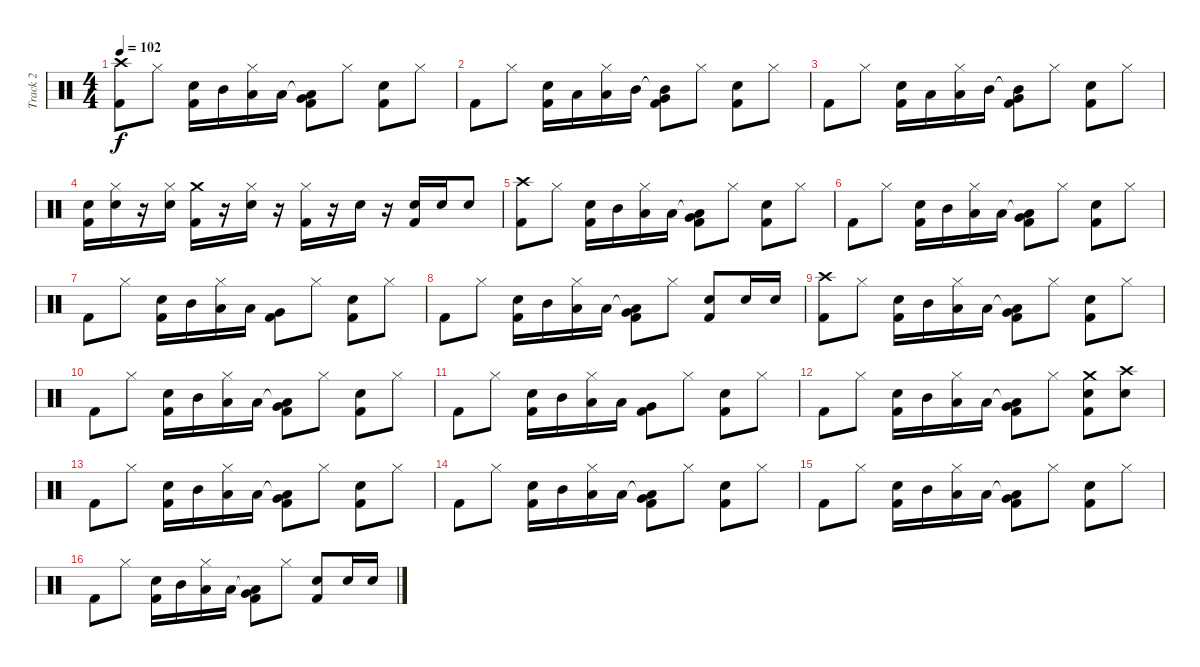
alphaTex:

\track ("Track 2" "Track 2") {instrument percussion}
\staff {score}
\articulation defaults
\ts (4 4)
\tempo 102
\clef neutral
\ks c
("Crash high (hit)" "Kick (hit) 2").8{dy f} "Hi-Hat (closed)".8 ("Electric Snare (hit)" "Kick (hit) 2").16 "Mid Tom (hit)".16 ("Hi-Hat (closed)" "Low Tom (hit)").16 "Low Tom (hit)".16 ("Low Tom (hit)"{t} "Very Low Tom (hit)" "Kick (hit) 2").8 "Hi-Hat (closed)".8 ("Electric Snare (hit)" "Kick (hit) 2").8 "Hi-Hat (closed)".8 |
"Kick (hit) 2".8 "Hi-Hat (closed)".8 ("Electric Snare (hit)" "Kick (hit) 2").16 "Low Tom (hit)".16 ("Hi-Hat (closed)" "Low Tom (hit)").16 "Mid Tom (hit)".16 ("Mid Tom (hit)"{t} "Very Low Tom (hit)" "Kick (hit) 2").8 "Hi-Hat (closed)".8 ("Electric Snare (hit)" "Kick (hit) 2").8 "Hi-Hat (closed)".8 |
"Kick (hit) 2".8 "Hi-Hat (closed)".8 ("Electric Snare (hit)" "Kick (hit) 2").16 "Low Tom (hit)".16 ("Hi-Hat (closed)" "Low Tom (hit)").16 "Mid Tom (hit)".16 ("Mid Tom (hit)"{t} "Very Low Tom (hit)" "Kick (hit) 2").8 "Hi-Hat (closed)".8 ("Electric Snare (hit)" "Kick (hit) 2").8 "Hi-Hat (closed)".8 |
("Electric Snare (hit)" "Kick (hit) 2").16 ("Hi-Hat (closed)" "Electric Snare (hit)").16 r.16 ("Hi-Hat (closed)" "Electric Snare (hit)").16 ("Crash medium (hit)" "Kick (hit) 2").16 r.16 ("Hi-Hat (closed)" "Electric Snare (hit)").16 r.16 ("Hi-Hat (closed)" "Kick (hit) 2").16 r.16 "Electric Snare (hit)".16 r.16 ("Electric Snare (hit)" "Kick (hit) 2").16 "Electric Snare (hit)".16 "Electric Snare (hit)".8 |
("Crash high (hit)" "Kick (hit) 2").8 "Hi-Hat (closed)".8 ("Electric Snare (hit)" "Kick (hit) 2").16 "Mid Tom (hit)".16 ("Hi-Hat (closed)" "Low Tom (hit)").16 "Low Tom (hit)".16 ("Low Tom (hit)"{t} "Very Low Tom (hit)" "Kick (hit) 2").8 "Hi-Hat (closed)".8 ("Electric Snare (hit)" "Kick (hit) 2").8 "Hi-Hat (closed)".8 |
"Kick (hit) 2".8 "Hi-Hat (closed)".8 ("Electric Snare (hit)" "Kick (hit) 2").16 "Mid Tom (hit)".16 ("Hi-Hat (closed)" "Low Tom (hit)").16 "Low Tom (hit)".16 ("Low Tom (hit)"{t} "Very Low Tom (hit)" "Kick (hit) 2").8 "Hi-Hat (closed)".8 ("Electric Snare (hit)" "Kick (hit) 2").8 "Hi-Hat (closed)".8 |
"Kick (hit) 2".8 "Hi-Hat (closed)".8 ("Electric Snare (hit)" "Kick (hit) 2").16 "Mid Tom (hit)".16 ("Hi-Hat (closed)" "Low Tom (hit)").16 "Low Tom (hit)".16 ("Very Low Tom (hit)" "Kick (hit) 2").8 "Hi-Hat (closed)".8 ("Electric Snare (hit)" "Kick (hit) 2").8 "Hi-Hat (closed)".8 |
"Kick (hit) 2".8 "Hi-Hat (closed)".8 ("Electric Snare (hit)" "Kick (hit) 2").16 "Mid Tom (hit)".16 ("Hi-Hat (closed)" "Low Tom (hit)").16 "Low Tom (hit)".16 ("Low Tom (hit)"{t} "Very Low Tom (hit)" "Kick (hit) 2").8 "Hi-Hat (closed)".8 ("Electric Snare (hit)" "Kick (hit) 2").8 "Electric Snare (hit)".16 "Electric Snare (hit)".16 |
("Crash high (hit)" "Kick (hit) 2").8 "Hi-Hat (closed)".8 ("Electric Snare (hit)" "Kick (hit) 2").16 "Mid Tom (hit)".16 ("Hi-Hat (closed)" "Low Tom (hit)").16 "Low Tom (hit)".16 ("Low Tom (hit)"{t} "Very Low Tom (hit)" "Kick (hit) 2").8 "Hi-Hat (closed)".8 ("Electric Snare (hit)" "Kick (hit) 2").8 "Hi-Hat (closed)".8 |
"Kick (hit) 2".8 "Hi-Hat (closed)".8 ("Electric Snare (hit)" "Kick (hit) 2").16 "Mid Tom (hit)".16 ("Hi-Hat (closed)" "Low Tom (hit)").16 "Low Tom (hit)".16 ("Low Tom (hit)"{t} "Very Low Tom (hit)" "Kick (hit) 2").8 "Hi-Hat (closed)".8 ("Electric Snare (hit)" "Kick (hit) 2").8 "Hi-Hat (closed)".8 |
"Kick (hit) 2".8 "Hi-Hat (closed)".8 ("Electric Snare (hit)" "Kick (hit) 2").16 "Mid Tom (hit)".16 ("Hi-Hat (closed)" "Low Tom (hit)").16 "Low Tom (hit)".16 ("Very Low Tom (hit)" "Kick (hit) 2").8 "Hi-Hat (closed)".8 ("Electric Snare (hit)" "Kick (hit) 2").8 "Hi-Hat (closed)".8 |
"Kick (hit) 2".8 "Hi-Hat (closed)".8 ("Electric Snare (hit)" "Kick (hit) 2").16 "Mid Tom (hit)".16 ("Hi-Hat (closed)" "Low Tom (hit)").16 "Low Tom (hit)".16 ("Low Tom (hit)"{t} "Very Low Tom (hit)" "Kick (hit) 2").8 "Hi-Hat (closed)".8 ("Crash medium (hit)" "Electric Snare (hit)" "Kick (hit) 2").8 ("Crash high (hit)" "Electric Snare (hit)").8 |
"Kick (hit) 2".8 "Hi-Hat (closed)".8 ("Electric Snare (hit)" "Kick (hit) 2").16 "Mid Tom (hit)".16 ("Hi-Hat (closed)" "Low Tom (hit)").16 "Low Tom (hit)".16 ("Low Tom (hit)"{t} "Very Low Tom (hit)" "Kick (hit) 2").8 "Hi-Hat (closed)".8 ("Electric Snare (hit)" "Kick (hit) 2").8 "Hi-Hat (closed)".8 |
"Kick (hit) 2".8 "Hi-Hat (closed)".8 ("Electric Snare (hit)" "Kick (hit) 2").16 "Mid Tom (hit)".16 ("Hi-Hat (closed)" "Low Tom (hit)").16 "Low Tom (hit)".16 ("Low Tom (hit)"{t} "Very Low Tom (hit)" "Kick (hit) 2").8 "Hi-Hat (closed)".8 ("Electric Snare (hit)" "Kick (hit) 2").8 "Hi-Hat (closed)".8 |
"Kick (hit) 2".8 "Hi-Hat (closed)".8 ("Electric Snare (hit)" "Kick (hit) 2").16 "Mid Tom (hit)".16 ("Hi-Hat (closed)" "Low Tom (hit)").16 "Low Tom (hit)".16 ("Low Tom (hit)"{t} "Very Low Tom (hit)" "Kick (hit) 2").8 "Hi-Hat (closed)".8 ("Electric Snare (hit)" "Kick (hit) 2").8 "Hi-Hat (closed)".8 |
"Kick (hit) 2".8 "Hi-Hat (closed)".8 ("Electric Snare (hit)" "Kick (hit) 2").16 "Mid Tom (hit)".16 ("Hi-Hat (closed)" "Low Tom (hit)").16 "Low Tom (hit)".16 ("Low Tom (hit)"{t} "Very Low Tom (hit)" "Kick (hit) 2").8 "Hi-Hat (closed)".8 ("Electric Snare (hit)" "Kick (hit) 2").8 "Electric Snare (hit)".16 "Electric Snare (hit)".16
